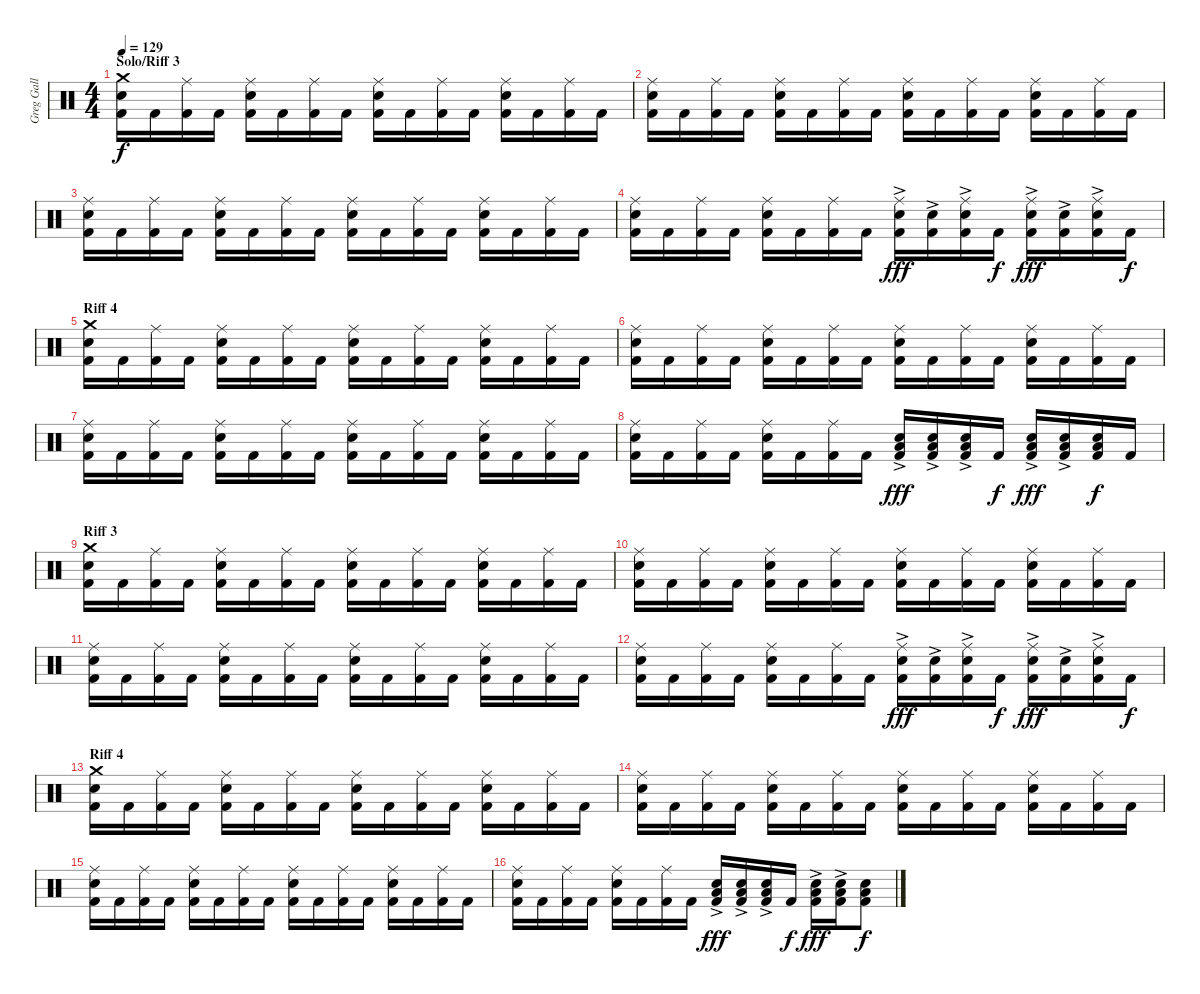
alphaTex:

\track ("Greg Gall (Drums)" "Greg Gall ") {instrument percussion}
\staff {score}
\articulation defaults
\ts (4 4)
\section ("" "Solo/Riff 3")
\tempo 129
\clef neutral
\ks c
("Crash medium (hit)" "Electric Snare (hit)" "Kick (hit) 2").16{dy f} "Kick (hit) 2".16 ("Ride (middle)" "Kick (hit) 2").16 "Kick (hit) 2".16 ("Ride (middle)" "Electric Snare (hit)" "Kick (hit) 2").16 "Kick (hit) 2".16 ("Ride (middle)" "Kick (hit) 2").16 "Kick (hit) 2".16 ("Ride (middle)" "Electric Snare (hit)" "Kick (hit) 2").16 "Kick (hit) 2".16 ("Ride (middle)" "Kick (hit) 2").16 "Kick (hit) 2".16 ("Ride (middle)" "Electric Snare (hit)" "Kick (hit) 2").16 "Kick (hit) 2".16 ("Ride (middle)" "Kick (hit) 2").16 "Kick (hit) 2".16 |
("Ride (middle)" "Electric Snare (hit)" "Kick (hit) 2").16 "Kick (hit) 2".16 ("Ride (middle)" "Kick (hit) 2").16 "Kick (hit) 2".16 ("Ride (middle)" "Electric Snare (hit)" "Kick (hit) 2").16 "Kick (hit) 2".16 ("Ride (middle)" "Kick (hit) 2").16 "Kick (hit) 2".16 ("Ride (middle)" "Electric Snare (hit)" "Kick (hit) 2").16 "Kick (hit) 2".16 ("Ride (middle)" "Kick (hit) 2").16 "Kick (hit) 2".16 ("Ride (middle)" "Electric Snare (hit)" "Kick (hit) 2").16 "Kick (hit) 2".16 ("Ride (middle)" "Kick (hit) 2").16 "Kick (hit) 2".16 |
("Ride (middle)" "Electric Snare (hit)" "Kick (hit) 2").16 "Kick (hit) 2".16 ("Ride (middle)" "Kick (hit) 2").16 "Kick (hit) 2".16 ("Ride (middle)" "Electric Snare (hit)" "Kick (hit) 2").16 "Kick (hit) 2".16 ("Ride (middle)" "Kick (hit) 2").16 "Kick (hit) 2".16 ("Ride (middle)" "Electric Snare (hit)" "Kick (hit) 2").16 "Kick (hit) 2".16 ("Ride (middle)" "Kick (hit) 2").16 "Kick (hit) 2".16 ("Ride (middle)" "Electric Snare (hit)" "Kick (hit) 2").16 "Kick (hit) 2".16 ("Ride (middle)" "Kick (hit) 2").16 "Kick (hit) 2".16 |
("Ride (middle)" "Electric Snare (hit)" "Kick (hit) 2").16 "Kick (hit) 2".16 ("Ride (middle)" "Kick (hit) 2").16 "Kick (hit) 2".16 ("Ride (middle)" "Electric Snare (hit)" "Kick (hit) 2").16 "Kick (hit) 2".16 ("Ride (middle)" "Kick (hit) 2").16 "Kick (hit) 2".16 ("Ride (middle)" "Electric Snare (hit)"{ac} "Kick (hit) 2").16{dy fff} ("Electric Snare (hit)"{ac} "Kick (hit) 2").16 ("Ride (middle)" "Electric Snare (hit)"{ac} "Kick (hit) 2").16 "Kick (hit) 2".16{dy f} ("Ride (middle)" "Electric Snare (hit)"{ac} "Kick (hit) 2").16{dy fff} ("Electric Snare (hit)"{ac} "Kick (hit) 2").16 ("Ride (middle)" "Electric Snare (hit)"{ac} "Kick (hit) 2").16 "Kick (hit) 2".16{dy f} |
\section ("" "Riff 4")
("Crash medium (hit)" "Electric Snare (hit)" "Kick (hit) 2").16 "Kick (hit) 2".16 ("Ride (middle)" "Kick (hit) 2").16 "Kick (hit) 2".16 ("Ride (middle)" "Electric Snare (hit)" "Kick (hit) 2").16 "Kick (hit) 2".16 ("Ride (middle)" "Kick (hit) 2").16 "Kick (hit) 2".16 ("Ride (middle)" "Electric Snare (hit)" "Kick (hit) 2").16 "Kick (hit) 2".16 ("Ride (middle)" "Kick (hit) 2").16 "Kick (hit) 2".16 ("Ride (middle)" "Electric Snare (hit)" "Kick (hit) 2").16 "Kick (hit) 2".16 ("Ride (middle)" "Kick (hit) 2").16 "Kick (hit) 2".16 |
("Ride (middle)" "Electric Snare (hit)" "Kick (hit) 2").16 "Kick (hit) 2".16 ("Ride (middle)" "Kick (hit) 2").16 "Kick (hit) 2".16 ("Ride (middle)" "Electric Snare (hit)" "Kick (hit) 2").16 "Kick (hit) 2".16 ("Ride (middle)" "Kick (hit) 2").16 "Kick (hit) 2".16 ("Ride (middle)" "Electric Snare (hit)" "Kick (hit) 2").16 "Kick (hit) 2".16 ("Ride (middle)" "Kick (hit) 2").16 "Kick (hit) 2".16 ("Ride (middle)" "Electric Snare (hit)" "Kick (hit) 2").16 "Kick (hit) 2".16 ("Ride (middle)" "Kick (hit) 2").16 "Kick (hit) 2".16 |
("Ride (middle)" "Electric Snare (hit)" "Kick (hit) 2").16 "Kick (hit) 2".16 ("Ride (middle)" "Kick (hit) 2").16 "Kick (hit) 2".16 ("Ride (middle)" "Electric Snare (hit)" "Kick (hit) 2").16 "Kick (hit) 2".16 ("Ride (middle)" "Kick (hit) 2").16 "Kick (hit) 2".16 ("Ride (middle)" "Electric Snare (hit)" "Kick (hit) 2").16 "Kick (hit) 2".16 ("Ride (middle)" "Kick (hit) 2").16 "Kick (hit) 2".16 ("Ride (middle)" "Electric Snare (hit)" "Kick (hit) 2").16 "Kick (hit) 2".16 ("Ride (middle)" "Kick (hit) 2").16 "Kick (hit) 2".16 |
("Ride (middle)" "Electric Snare (hit)" "Kick (hit) 2").16 "Kick (hit) 2".16 ("Ride (middle)" "Kick (hit) 2").16 "Kick (hit) 2".16 ("Ride (middle)" "Electric Snare (hit)" "Kick (hit) 2").16 "Kick (hit) 2".16 ("Ride (middle)" "Kick (hit) 2").16 "Kick (hit) 2".16 ("Low Tom (hit)"{ac} "Electric Snare (hit)" "Kick (hit) 2").16{dy fff} ("Low Tom (hit)"{ac} "Electric Snare (hit)" "Kick (hit) 2").16 ("Low Tom (hit)"{ac} "Electric Snare (hit)" "Kick (hit) 2").16 "Kick (hit) 2".16{dy f} ("Low Tom (hit)"{ac} "Electric Snare (hit)" "Kick (hit) 2").16{dy fff} ("Low Tom (hit)"{ac} "Electric Snare (hit)" "Kick (hit) 2").16 ("Low Tom (hit)" "Electric Snare (hit)" "Kick (hit) 2").16{dy f} "Kick (hit) 2".16 |
\section ("" "Riff 3")
("Crash medium (hit)" "Electric Snare (hit)" "Kick (hit) 2").16 "Kick (hit) 2".16 ("Ride (middle)" "Kick (hit) 2").16 "Kick (hit) 2".16 ("Ride (middle)" "Electric Snare (hit)" "Kick (hit) 2").16 "Kick (hit) 2".16 ("Ride (middle)" "Kick (hit) 2").16 "Kick (hit) 2".16 ("Ride (middle)" "Electric Snare (hit)" "Kick (hit) 2").16 "Kick (hit) 2".16 ("Ride (middle)" "Kick (hit) 2").16 "Kick (hit) 2".16 ("Ride (middle)" "Electric Snare (hit)" "Kick (hit) 2").16 "Kick (hit) 2".16 ("Ride (middle)" "Kick (hit) 2").16 "Kick (hit) 2".16 |
("Ride (middle)" "Electric Snare (hit)" "Kick (hit) 2").16 "Kick (hit) 2".16 ("Ride (middle)" "Kick (hit) 2").16 "Kick (hit) 2".16 ("Ride (middle)" "Electric Snare (hit)" "Kick (hit) 2").16 "Kick (hit) 2".16 ("Ride (middle)" "Kick (hit) 2").16 "Kick (hit) 2".16 ("Ride (middle)" "Electric Snare (hit)" "Kick (hit) 2").16 "Kick (hit) 2".16 ("Ride (middle)" "Kick (hit) 2").16 "Kick (hit) 2".16 ("Ride (middle)" "Electric Snare (hit)" "Kick (hit) 2").16 "Kick (hit) 2".16 ("Ride (middle)" "Kick (hit) 2").16 "Kick (hit) 2".16 |
("Ride (middle)" "Electric Snare (hit)" "Kick (hit) 2").16 "Kick (hit) 2".16 ("Ride (middle)" "Kick (hit) 2").16 "Kick (hit) 2".16 ("Ride (middle)" "Electric Snare (hit)" "Kick (hit) 2").16 "Kick (hit) 2".16 ("Ride (middle)" "Kick (hit) 2").16 "Kick (hit) 2".16 ("Ride (middle)" "Electric Snare (hit)" "Kick (hit) 2").16 "Kick (hit) 2".16 ("Ride (middle)" "Kick (hit) 2").16 "Kick (hit) 2".16 ("Ride (middle)" "Electric Snare (hit)" "Kick (hit) 2").16 "Kick (hit) 2".16 ("Ride (middle)" "Kick (hit) 2").16 "Kick (hit) 2".16 |
("Ride (middle)" "Electric Snare (hit)" "Kick (hit) 2").16 "Kick (hit) 2".16 ("Ride (middle)" "Kick (hit) 2").16 "Kick (hit) 2".16 ("Ride (middle)" "Electric Snare (hit)" "Kick (hit) 2").16 "Kick (hit) 2".16 ("Ride (middle)" "Kick (hit) 2").16 "Kick (hit) 2".16 ("Ride (middle)" "Electric Snare (hit)"{ac} "Kick (hit) 2").16{dy fff} ("Electric Snare (hit)"{ac} "Kick (hit) 2").16 ("Ride (middle)" "Electric Snare (hit)"{ac} "Kick (hit) 2").16 "Kick (hit) 2".16{dy f} ("Ride (middle)" "Electric Snare (hit)"{ac} "Kick (hit) 2").16{dy fff} ("Electric Snare (hit)"{ac} "Kick (hit) 2").16 ("Ride (middle)" "Electric Snare (hit)"{ac} "Kick (hit) 2").16 "Kick (hit) 2".16{dy f} |
\section ("" "Riff 4")
("Crash medium (hit)" "Electric Snare (hit)" "Kick (hit) 2").16 "Kick (hit) 2".16 ("Ride (middle)" "Kick (hit) 2").16 "Kick (hit) 2".16 ("Ride (middle)" "Electric Snare (hit)" "Kick (hit) 2").16 "Kick (hit) 2".16 ("Ride (middle)" "Kick (hit) 2").16 "Kick (hit) 2".16 ("Ride (middle)" "Electric Snare (hit)" "Kick (hit) 2").16 "Kick (hit) 2".16 ("Ride (middle)" "Kick (hit) 2").16 "Kick (hit) 2".16 ("Ride (middle)" "Electric Snare (hit)" "Kick (hit) 2").16 "Kick (hit) 2".16 ("Ride (middle)" "Kick (hit) 2").16 "Kick (hit) 2".16 |
("Ride (middle)" "Electric Snare (hit)" "Kick (hit) 2").16 "Kick (hit) 2".16 ("Ride (middle)" "Kick (hit) 2").16 "Kick (hit) 2".16 ("Ride (middle)" "Electric Snare (hit)" "Kick (hit) 2").16 "Kick (hit) 2".16 ("Ride (middle)" "Kick (hit) 2").16 "Kick (hit) 2".16 ("Ride (middle)" "Electric Snare (hit)" "Kick (hit) 2").16 "Kick (hit) 2".16 ("Ride (middle)" "Kick (hit) 2").16 "Kick (hit) 2".16 ("Ride (middle)" "Electric Snare (hit)" "Kick (hit) 2").16 "Kick (hit) 2".16 ("Ride (middle)" "Kick (hit) 2").16 "Kick (hit) 2".16 |
("Ride (middle)" "Electric Snare (hit)" "Kick (hit) 2").16 "Kick (hit) 2".16 ("Ride (middle)" "Kick (hit) 2").16 "Kick (hit) 2".16 ("Ride (middle)" "Electric Snare (hit)" "Kick (hit) 2").16 "Kick (hit) 2".16 ("Ride (middle)" "Kick (hit) 2").16 "Kick (hit) 2".16 ("Ride (middle)" "Electric Snare (hit)" "Kick (hit) 2").16 "Kick (hit) 2".16 ("Ride (middle)" "Kick (hit) 2").16 "Kick (hit) 2".16 ("Ride (middle)" "Electric Snare (hit)" "Kick (hit) 2").16 "Kick (hit) 2".16 ("Ride (middle)" "Kick (hit) 2").16 "Kick (hit) 2".16 |
("Ride (middle)" "Electric Snare (hit)" "Kick (hit) 2").16 "Kick (hit) 2".16 ("Ride (middle)" "Kick (hit) 2").16 "Kick (hit) 2".16 ("Ride (middle)" "Electric Snare (hit)" "Kick (hit) 2").16 "Kick (hit) 2".16 ("Ride (middle)" "Kick (hit) 2").16 "Kick (hit) 2".16 ("Low Tom (hit)"{ac} "Electric Snare (hit)" "Kick (hit) 2").16{dy fff} ("Low Tom (hit)"{ac} "Electric Snare (hit)" "Kick (hit) 2").16 ("Low Tom (hit)"{ac} "Electric Snare (hit)" "Kick (hit) 2").16 "Kick (hit) 2".16{dy f} ("Low Tom (hit)"{ac} "Electric Snare (hit)" "Kick (hit) 2").16{dy fff} ("Low Tom (hit)"{ac} "Electric Snare (hit)" "Kick (hit) 2").16 ("Low Tom (hit)" "Electric Snare (hit)" "Kick (hit) 2").8{dy f}
